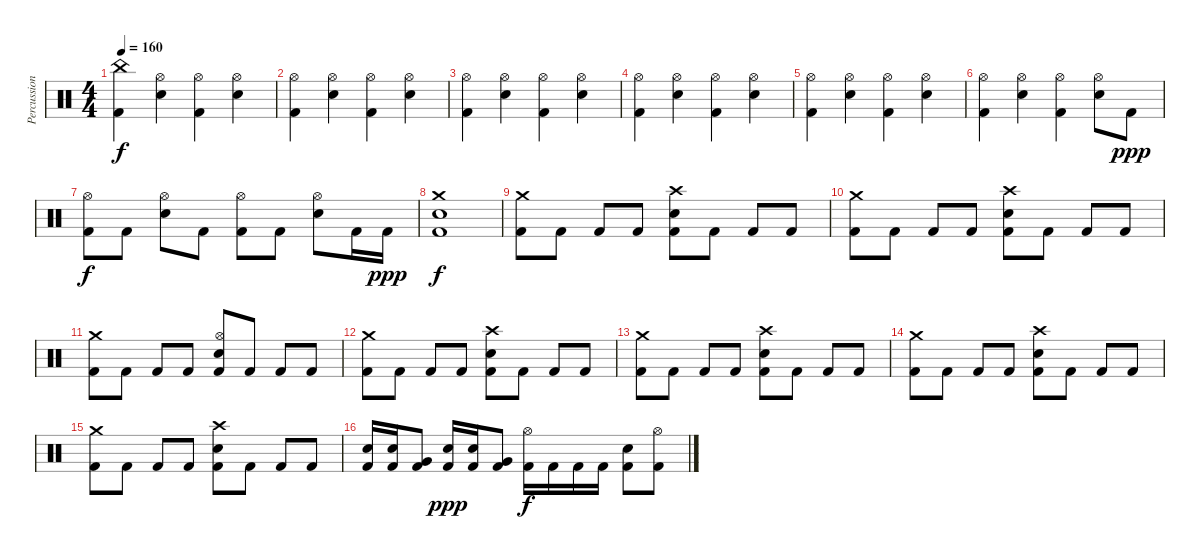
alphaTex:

\track ("Percussion" "Percussion") {instrument percussion}
\staff {score}
\articulation defaults
\ts (4 4)
\tempo 160
\clef neutral
\ks c
("China (hit)" "Kick (hit) 2").4{dy f} ("Hi-Hat (open)" "Electric Snare (hit)").4 ("Hi-Hat (open)" "Kick (hit) 2").4 ("Hi-Hat (open)" "Electric Snare (hit)").4 |
("Hi-Hat (open)" "Kick (hit) 2").4 ("Hi-Hat (open)" "Electric Snare (hit)").4 ("Hi-Hat (open)" "Kick (hit) 2").4 ("Hi-Hat (open)" "Electric Snare (hit)").4 |
("Hi-Hat (open)" "Kick (hit) 2").4 ("Hi-Hat (open)" "Electric Snare (hit)").4 ("Hi-Hat (open)" "Kick (hit) 2").4 ("Hi-Hat (open)" "Electric Snare (hit)").4 |
("Hi-Hat (open)" "Kick (hit) 2").4 ("Hi-Hat (open)" "Electric Snare (hit)").4 ("Hi-Hat (open)" "Kick (hit) 2").4 ("Hi-Hat (open)" "Electric Snare (hit)").4 |
("Hi-Hat (open)" "Kick (hit) 2").4 ("Hi-Hat (open)" "Electric Snare (hit)").4 ("Hi-Hat (open)" "Kick (hit) 2").4 ("Hi-Hat (open)" "Electric Snare (hit)").4 |
("Hi-Hat (open)" "Kick (hit) 2").4 ("Hi-Hat (open)" "Electric Snare (hit)").4 ("Hi-Hat (open)" "Kick (hit) 2").4 ("Hi-Hat (open)" "Electric Snare (hit)").8 "Kick (hit) 2".8{dy ppp} |
("Hi-Hat (open)" "Kick (hit) 2").8{dy f} "Kick (hit) 2".8 ("Hi-Hat (open)" "Electric Snare (hit)").8 "Kick (hit) 2".8 ("Hi-Hat (open)" "Kick (hit) 2").8 "Kick (hit) 2".8 ("Hi-Hat (open)" "Electric Snare (hit)").8 "Kick (hit) 2".16 "Kick (hit) 2".16{dy ppp} |
("Crash medium (hit)" "Electric Snare (hit)" "Kick (hit) 2").1{dy f} |
("Crash medium (hit)" "Kick (hit) 2").8 "Kick (hit) 2".8 "Kick (hit) 2".8 "Kick (hit) 2".8 ("Crash high (hit)" "Electric Snare (hit)" "Kick (hit) 2").8 "Kick (hit) 2".8 "Kick (hit) 2".8 "Kick (hit) 2".8 |
("Crash medium (hit)" "Kick (hit) 2").8 "Kick (hit) 2".8 "Kick (hit) 2".8 "Kick (hit) 2".8 ("Crash high (hit)" "Electric Snare (hit)" "Kick (hit) 2").8 "Kick (hit) 2".8 "Kick (hit) 2".8 "Kick (hit) 2".8 |
("Crash medium (hit)" "Kick (hit) 2").8 "Kick (hit) 2".8 "Kick (hit) 2".8 "Kick (hit) 2".8 ("Hi-Hat (open)" "Electric Snare (hit)" "Kick (hit) 2").8 "Kick (hit) 2".8 "Kick (hit) 2".8 "Kick (hit) 2".8 |
("Crash medium (hit)" "Kick (hit) 2").8 "Kick (hit) 2".8 "Kick (hit) 2".8 "Kick (hit) 2".8 ("Crash high (hit)" "Electric Snare (hit)" "Kick (hit) 2").8 "Kick (hit) 2".8 "Kick (hit) 2".8 "Kick (hit) 2".8 |
("Crash medium (hit)" "Kick (hit) 2").8 "Kick (hit) 2".8 "Kick (hit) 2".8 "Kick (hit) 2".8 ("Crash high (hit)" "Electric Snare (hit)" "Kick (hit) 2").8 "Kick (hit) 2".8 "Kick (hit) 2".8 "Kick (hit) 2".8 |
("Crash medium (hit)" "Kick (hit) 2").8 "Kick (hit) 2".8 "Kick (hit) 2".8 "Kick (hit) 2".8 ("Crash high (hit)" "Electric Snare (hit)" "Kick (hit) 2").8 "Kick (hit) 2".8 "Kick (hit) 2".8 "Kick (hit) 2".8 |
("Crash medium (hit)" "Kick (hit) 2").8 "Kick (hit) 2".8 "Kick (hit) 2".8 "Kick (hit) 2".8 ("Crash high (hit)" "Electric Snare (hit)" "Kick (hit) 2").8 "Kick (hit) 2".8 "Kick (hit) 2".8 "Kick (hit) 2".8 |
("Electric Snare (hit)" "Kick (hit) 2").16 ("Electric Snare (hit)" "Kick (hit) 2").16 ("Very Low Tom (hit)" "Kick (hit) 2").8 ("Electric Snare (hit)" "Kick (hit) 2").16{dy ppp} ("Electric Snare (hit)" "Kick (hit) 2").16 ("Very Low Tom (hit)" "Kick (hit) 2").8 ("Hi-Hat (open)" "Kick (hit) 2").16{dy f} "Kick (hit) 2".16 "Kick (hit) 2".16 "Kick (hit) 2".16 ("Electric Snare (hit)" "Kick (hit) 2").8 ("Hi-Hat (open)" "Kick (hit) 2").8
